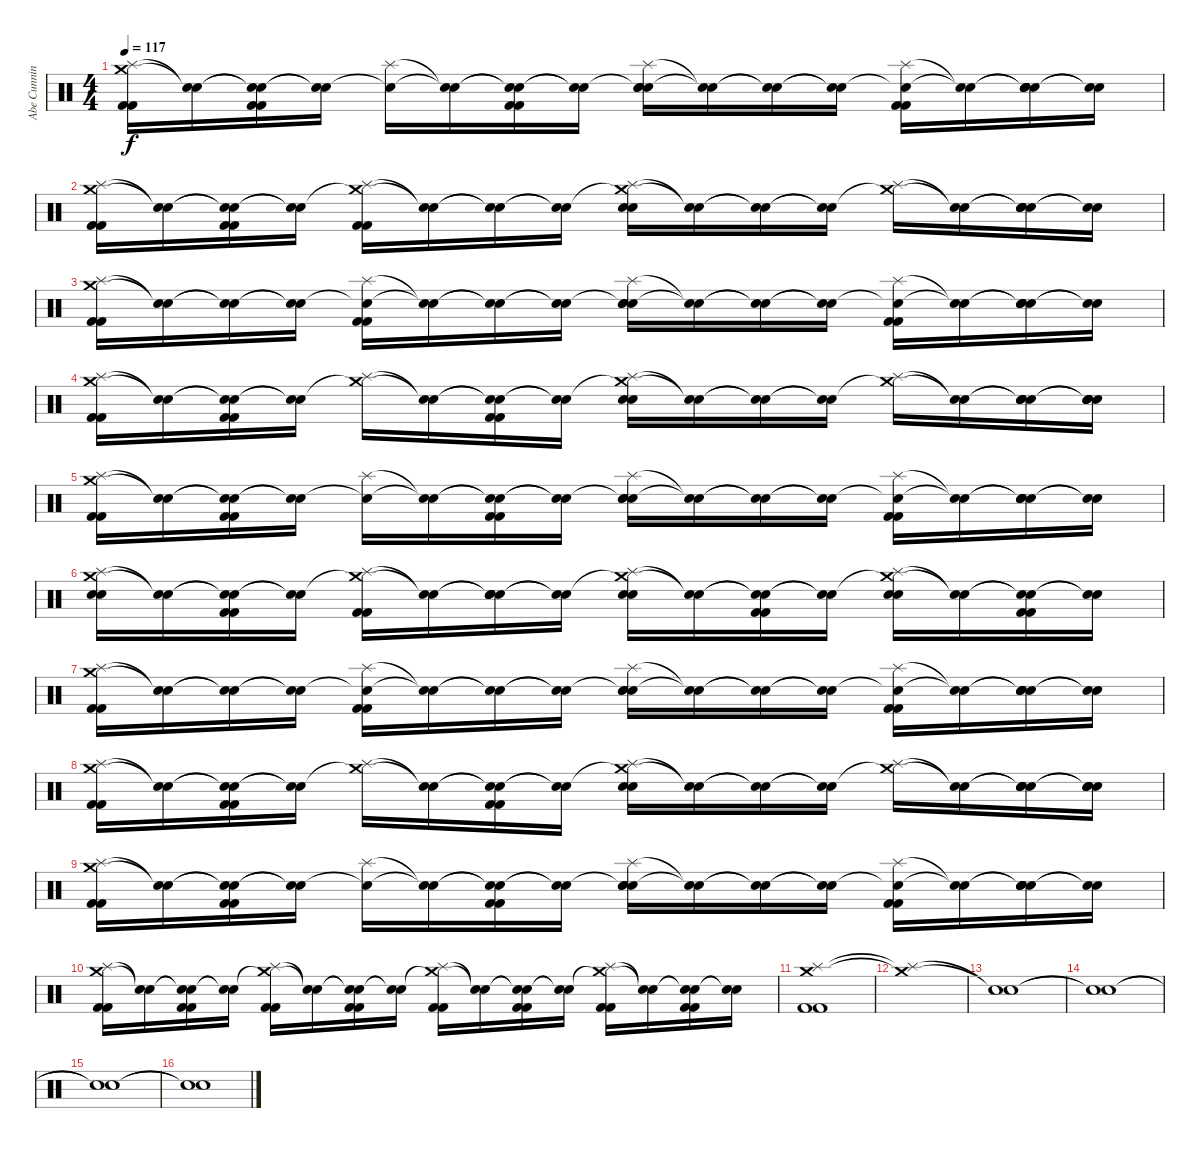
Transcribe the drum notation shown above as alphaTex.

\track ("Abe Cunningham" "Abe Cunnin") {instrument percussion}
\staff {score}
\articulation defaults
\ts (4 4)
\tempo 117
\clef neutral
\ks c
("Splash (hit)" "Crash medium (hit)" "Kick (hit) 2" "Kick (hit) 2").16{dy f} ("Snare (hit)"{t} "Snare (hit)"{t}).16 ("Snare (hit)"{t} "Snare (hit)"{t} "Kick (hit) 2" "Kick (hit) 2").16 ("Snare (hit)"{t} "Snare (hit)"{t}).16 ("Splash (hit)" "Snare (hit)"{t}).16 ("Snare (hit)"{t} "Snare (hit)"{t}).16 ("Snare (hit)"{t} "Snare (hit)"{t} "Kick (hit) 2" "Kick (hit) 2").16 ("Snare (hit)"{t} "Snare (hit)"{t}).16 ("Splash (hit)" "Snare (hit)"{t} "Electric Snare (hit)" "Electric Snare (hit)").16 ("Snare (hit)"{t} "Snare (hit)"{t}).16 ("Snare (hit)"{t} "Snare (hit)"{t}).16 ("Snare (hit)"{t} "Snare (hit)"{t}).16 ("Splash (hit)" "Snare (hit)"{t} "Kick (hit) 2" "Kick (hit) 2").16 ("Snare (hit)"{t} "Snare (hit)"{t}).16 ("Snare (hit)"{t} "Snare (hit)"{t} "Electric Snare (hit)" "Electric Snare (hit)").16 ("Snare (hit)"{t} "Snare (hit)"{t}).16 |
("Splash (hit)" "Crash medium (hit)" "Kick (hit) 2" "Kick (hit) 2").16 ("Snare (hit)"{t} "Snare (hit)"{t}).16 ("Snare (hit)"{t} "Snare (hit)"{t} "Kick (hit) 2" "Kick (hit) 2").16 ("Snare (hit)"{t} "Snare (hit)"{t}).16 ("Splash (hit)" "Crash medium (hit)"{t} "Kick (hit) 2" "Kick (hit) 2").16 ("Snare (hit)"{t} "Snare (hit)"{t}).16 ("Snare (hit)"{t} "Snare (hit)"{t}).16 ("Snare (hit)"{t} "Snare (hit)"{t}).16 ("Splash (hit)" "Crash medium (hit)"{t} "Electric Snare (hit)" "Electric Snare (hit)").16 ("Snare (hit)"{t} "Snare (hit)"{t}).16 ("Snare (hit)"{t} "Snare (hit)"{t}).16 ("Snare (hit)"{t} "Snare (hit)"{t}).16 ("Splash (hit)" "Crash medium (hit)"{t}).16 ("Snare (hit)"{t} "Snare (hit)"{t}).16 ("Snare (hit)"{t} "Snare (hit)"{t} "Electric Snare (hit)" "Electric Snare (hit)").16 ("Snare (hit)"{t} "Snare (hit)"{t}).16 |
("Splash (hit)" "Crash medium (hit)" "Kick (hit) 2" "Kick (hit) 2").16 ("Snare (hit)"{t} "Snare (hit)"{t}).16 ("Snare (hit)"{t} "Snare (hit)"{t}).16 ("Snare (hit)"{t} "Snare (hit)"{t}).16 ("Splash (hit)" "Snare (hit)"{t} "Kick (hit) 2" "Kick (hit) 2").16 ("Snare (hit)"{t} "Snare (hit)"{t}).16 ("Snare (hit)"{t} "Snare (hit)"{t}).16 ("Snare (hit)"{t} "Snare (hit)"{t}).16 ("Splash (hit)" "Snare (hit)"{t} "Electric Snare (hit)" "Electric Snare (hit)").16 ("Snare (hit)"{t} "Snare (hit)"{t}).16 ("Snare (hit)"{t} "Snare (hit)"{t}).16 ("Snare (hit)"{t} "Snare (hit)"{t}).16 ("Splash (hit)" "Snare (hit)"{t} "Kick (hit) 2" "Kick (hit) 2").16 ("Snare (hit)"{t} "Snare (hit)"{t}).16 ("Snare (hit)"{t} "Snare (hit)"{t} "Electric Snare (hit)" "Electric Snare (hit)").16 ("Snare (hit)"{t} "Snare (hit)"{t}).16 |
("Splash (hit)" "Crash medium (hit)" "Kick (hit) 2" "Kick (hit) 2").16 ("Snare (hit)"{t} "Snare (hit)"{t}).16 ("Snare (hit)"{t} "Snare (hit)"{t} "Kick (hit) 2" "Kick (hit) 2").16 ("Snare (hit)"{t} "Snare (hit)"{t}).16 ("Splash (hit)" "Crash medium (hit)"{t}).16 ("Snare (hit)"{t} "Snare (hit)"{t}).16 ("Snare (hit)"{t} "Snare (hit)"{t} "Kick (hit) 2" "Kick (hit) 2").16 ("Snare (hit)"{t} "Snare (hit)"{t}).16 ("Splash (hit)" "Crash medium (hit)"{t} "Electric Snare (hit)" "Electric Snare (hit)").16 ("Snare (hit)"{t} "Snare (hit)"{t}).16 ("Snare (hit)"{t} "Snare (hit)"{t}).16 ("Snare (hit)"{t} "Snare (hit)"{t}).16 ("Splash (hit)" "Crash medium (hit)"{t}).16 ("Snare (hit)"{t} "Snare (hit)"{t}).16 ("Snare (hit)"{t} "Snare (hit)"{t} "Electric Snare (hit)" "Electric Snare (hit)").16 ("Snare (hit)"{t} "Snare (hit)"{t} "Electric Snare (hit)" "Electric Snare (hit)").16 |
("Splash (hit)" "Crash medium (hit)" "Kick (hit) 2" "Kick (hit) 2").16 ("Snare (hit)"{t} "Snare (hit)"{t}).16 ("Snare (hit)"{t} "Snare (hit)"{t} "Kick (hit) 2" "Kick (hit) 2").16 ("Snare (hit)"{t} "Snare (hit)"{t}).16 ("Splash (hit)" "Snare (hit)"{t}).16 ("Snare (hit)"{t} "Snare (hit)"{t}).16 ("Snare (hit)"{t} "Snare (hit)"{t} "Kick (hit) 2" "Kick (hit) 2").16 ("Snare (hit)"{t} "Snare (hit)"{t}).16 ("Splash (hit)" "Snare (hit)"{t} "Electric Snare (hit)" "Electric Snare (hit)").16 ("Snare (hit)"{t} "Snare (hit)"{t}).16 ("Snare (hit)"{t} "Snare (hit)"{t}).16 ("Snare (hit)"{t} "Snare (hit)"{t}).16 ("Splash (hit)" "Snare (hit)"{t} "Kick (hit) 2" "Kick (hit) 2").16 ("Snare (hit)"{t} "Snare (hit)"{t}).16 ("Snare (hit)"{t} "Snare (hit)"{t} "Electric Snare (hit)" "Electric Snare (hit)").16 ("Snare (hit)"{t} "Snare (hit)"{t}).16 |
("Splash (hit)" "Crash medium (hit)" "Electric Snare (hit)" "Electric Snare (hit)").16 ("Snare (hit)"{t} "Snare (hit)"{t}).16 ("Snare (hit)"{t} "Snare (hit)"{t} "Kick (hit) 2" "Kick (hit) 2").16 ("Snare (hit)"{t} "Snare (hit)"{t}).16 ("Splash (hit)" "Crash medium (hit)"{t} "Kick (hit) 2" "Kick (hit) 2").16 ("Snare (hit)"{t} "Snare (hit)"{t}).16 ("Snare (hit)"{t} "Snare (hit)"{t} "Electric Snare (hit)" "Electric Snare (hit)").16 ("Snare (hit)"{t} "Snare (hit)"{t}).16 ("Splash (hit)" "Crash medium (hit)"{t} "Electric Snare (hit)" "Electric Snare (hit)").16 ("Snare (hit)"{t} "Snare (hit)"{t}).16 ("Snare (hit)"{t} "Snare (hit)"{t} "Kick (hit) 2" "Kick (hit) 2").16 ("Snare (hit)"{t} "Snare (hit)"{t}).16 ("Splash (hit)" "Crash medium (hit)"{t} "Electric Snare (hit)" "Electric Snare (hit)").16 ("Snare (hit)"{t} "Snare (hit)"{t}).16 ("Snare (hit)"{t} "Snare (hit)"{t} "Kick (hit) 2" "Kick (hit) 2").16 ("Snare (hit)"{t} "Snare (hit)"{t}).16 |
("Splash (hit)" "Crash medium (hit)" "Kick (hit) 2" "Kick (hit) 2").16 ("Snare (hit)"{t} "Snare (hit)"{t}).16 ("Snare (hit)"{t} "Snare (hit)"{t}).16 ("Snare (hit)"{t} "Snare (hit)"{t}).16 ("Splash (hit)" "Snare (hit)"{t} "Kick (hit) 2" "Kick (hit) 2").16 ("Snare (hit)"{t} "Snare (hit)"{t}).16 ("Snare (hit)"{t} "Snare (hit)"{t}).16 ("Snare (hit)"{t} "Snare (hit)"{t}).16 ("Splash (hit)" "Snare (hit)"{t} "Electric Snare (hit)" "Electric Snare (hit)").16 ("Snare (hit)"{t} "Snare (hit)"{t}).16 ("Snare (hit)"{t} "Snare (hit)"{t}).16 ("Snare (hit)"{t} "Snare (hit)"{t}).16 ("Splash (hit)" "Snare (hit)"{t} "Kick (hit) 2" "Kick (hit) 2").16 ("Snare (hit)"{t} "Snare (hit)"{t}).16 ("Snare (hit)"{t} "Snare (hit)"{t} "Electric Snare (hit)" "Electric Snare (hit)").16 ("Snare (hit)"{t} "Snare (hit)"{t}).16 |
("Splash (hit)" "Crash medium (hit)" "Kick (hit) 2" "Kick (hit) 2").16 ("Snare (hit)"{t} "Snare (hit)"{t}).16 ("Snare (hit)"{t} "Snare (hit)"{t} "Kick (hit) 2" "Kick (hit) 2").16 ("Snare (hit)"{t} "Snare (hit)"{t}).16 ("Splash (hit)" "Crash medium (hit)"{t}).16 ("Snare (hit)"{t} "Snare (hit)"{t}).16 ("Snare (hit)"{t} "Snare (hit)"{t} "Kick (hit) 2" "Kick (hit) 2").16 ("Snare (hit)"{t} "Snare (hit)"{t}).16 ("Splash (hit)" "Crash medium (hit)"{t} "Electric Snare (hit)" "Electric Snare (hit)").16 ("Snare (hit)"{t} "Snare (hit)"{t}).16 ("Snare (hit)"{t} "Snare (hit)"{t}).16 ("Snare (hit)"{t} "Snare (hit)"{t}).16 ("Splash (hit)" "Crash medium (hit)"{t}).16 ("Snare (hit)"{t} "Snare (hit)"{t}).16 ("Snare (hit)"{t} "Snare (hit)"{t} "Electric Snare (hit)" "Electric Snare (hit)").16 ("Snare (hit)"{t} "Snare (hit)"{t} "Electric Snare (hit)" "Electric Snare (hit)").16 |
("Splash (hit)" "Crash medium (hit)" "Kick (hit) 2" "Kick (hit) 2").16 ("Snare (hit)"{t} "Snare (hit)"{t}).16 ("Snare (hit)"{t} "Snare (hit)"{t} "Kick (hit) 2" "Kick (hit) 2").16 ("Snare (hit)"{t} "Snare (hit)"{t}).16 ("Splash (hit)" "Snare (hit)"{t}).16 ("Snare (hit)"{t} "Snare (hit)"{t}).16 ("Snare (hit)"{t} "Snare (hit)"{t} "Kick (hit) 2" "Kick (hit) 2").16 ("Snare (hit)"{t} "Snare (hit)"{t}).16 ("Splash (hit)" "Snare (hit)"{t} "Electric Snare (hit)" "Electric Snare (hit)").16 ("Snare (hit)"{t} "Snare (hit)"{t}).16 ("Snare (hit)"{t} "Snare (hit)"{t}).16 ("Snare (hit)"{t} "Snare (hit)"{t}).16 ("Splash (hit)" "Snare (hit)"{t} "Kick (hit) 2" "Kick (hit) 2").16 ("Snare (hit)"{t} "Snare (hit)"{t}).16 ("Snare (hit)"{t} "Snare (hit)"{t} "Electric Snare (hit)" "Electric Snare (hit)").16 ("Snare (hit)"{t} "Snare (hit)"{t}).16 |
("Splash (hit)" "Crash medium (hit)" "Kick (hit) 2" "Kick (hit) 2").16 ("Snare (hit)"{t} "Snare (hit)"{t}).16 ("Snare (hit)"{t} "Snare (hit)"{t} "Kick (hit) 2" "Kick (hit) 2").16 ("Snare (hit)"{t} "Snare (hit)"{t}).16 ("Splash (hit)" "Crash medium (hit)"{t} "Kick (hit) 2" "Kick (hit) 2").16 ("Snare (hit)"{t} "Snare (hit)"{t}).16 ("Snare (hit)"{t} "Snare (hit)"{t} "Kick (hit) 2" "Kick (hit) 2").16 ("Snare (hit)"{t} "Snare (hit)"{t}).16 ("Splash (hit)" "Crash medium (hit)"{t} "Kick (hit) 2" "Kick (hit) 2").16 ("Snare (hit)"{t} "Snare (hit)"{t}).16 ("Snare (hit)"{t} "Snare (hit)"{t} "Kick (hit) 2" "Kick (hit) 2").16 ("Snare (hit)"{t} "Snare (hit)"{t}).16 ("Splash (hit)" "Crash medium (hit)"{t} "Kick (hit) 2" "Kick (hit) 2").16 ("Snare (hit)"{t} "Snare (hit)"{t}).16 ("Snare (hit)"{t} "Snare (hit)"{t} "Kick (hit) 2" "Kick (hit) 2").16 ("Snare (hit)"{t} "Snare (hit)"{t}).16 |
("Splash (hit)" "Crash medium (hit)" "Kick (hit) 2" "Kick (hit) 2").1 |
("Splash (hit)"{t} "Crash medium (hit)"{t}).1 |
("Snare (hit)"{t} "Snare (hit)"{t}).1 |
("Snare (hit)"{t} "Snare (hit)"{t}).1 |
("Snare (hit)"{t} "Snare (hit)"{t}).1 |
("Snare (hit)"{t} "Snare (hit)"{t}).1
